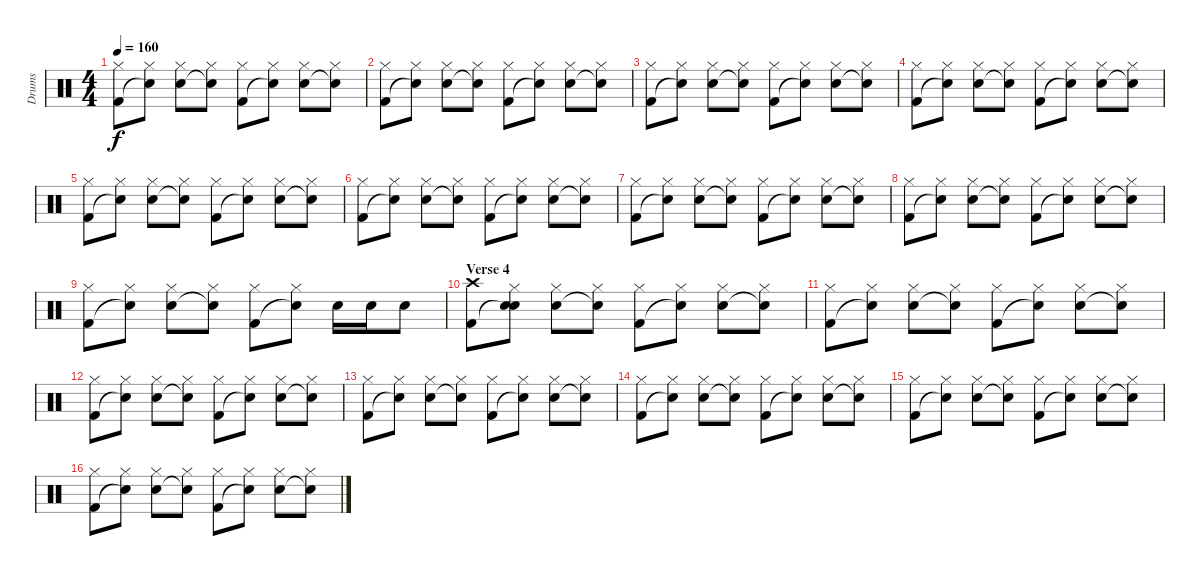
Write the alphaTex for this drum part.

\track ("Drums" "Drums") {instrument percussion}
\staff {score}
\articulation defaults
\ts (4 4)
\tempo 160
\clef neutral
\ks c
("Kick (hit) 2" "Hi-Hat (closed)").8{dy f} ("Snare (hit)"{t} "Hi-Hat (closed)").8 ("Snare (hit) 2" "Hi-Hat (closed)").8 ("Snare (hit)"{t} "Hi-Hat (closed)").8 ("Kick (hit) 2" "Hi-Hat (closed)").8 ("Snare (hit)"{t} "Hi-Hat (closed)").8 ("Snare (hit) 2" "Hi-Hat (closed)").8 ("Snare (hit)"{t} "Hi-Hat (closed)").8 |
("Kick (hit) 2" "Hi-Hat (closed)").8 ("Snare (hit)"{t} "Hi-Hat (closed)").8 ("Snare (hit) 2" "Hi-Hat (closed)").8 ("Snare (hit)"{t} "Hi-Hat (closed)").8 ("Kick (hit) 2" "Hi-Hat (closed)").8 ("Snare (hit)"{t} "Hi-Hat (closed)").8 ("Snare (hit) 2" "Hi-Hat (closed)").8 ("Snare (hit)"{t} "Hi-Hat (closed)").8 |
("Kick (hit) 2" "Hi-Hat (closed)").8 ("Snare (hit)"{t} "Hi-Hat (closed)").8 ("Snare (hit) 2" "Hi-Hat (closed)").8 ("Snare (hit)"{t} "Hi-Hat (closed)").8 ("Kick (hit) 2" "Hi-Hat (closed)").8 ("Snare (hit)"{t} "Hi-Hat (closed)").8 ("Snare (hit) 2" "Hi-Hat (closed)").8 ("Snare (hit)"{t} "Hi-Hat (closed)").8 |
("Kick (hit) 2" "Hi-Hat (closed)").8 ("Snare (hit)"{t} "Hi-Hat (closed)").8 ("Snare (hit) 2" "Hi-Hat (closed)").8 ("Snare (hit)"{t} "Hi-Hat (closed)").8 ("Kick (hit) 2" "Hi-Hat (closed)").8 ("Snare (hit)"{t} "Hi-Hat (closed)").8 ("Snare (hit) 2" "Hi-Hat (closed)").8 ("Snare (hit)"{t} "Hi-Hat (closed)").8 |
("Kick (hit) 2" "Hi-Hat (closed)").8 ("Snare (hit)"{t} "Hi-Hat (closed)").8 ("Snare (hit) 2" "Hi-Hat (closed)").8 ("Snare (hit)"{t} "Hi-Hat (closed)").8 ("Kick (hit) 2" "Hi-Hat (closed)").8 ("Snare (hit)"{t} "Hi-Hat (closed)").8 ("Snare (hit) 2" "Hi-Hat (closed)").8 ("Snare (hit)"{t} "Hi-Hat (closed)").8 |
("Kick (hit) 2" "Hi-Hat (closed)").8 ("Snare (hit)"{t} "Hi-Hat (closed)").8 ("Snare (hit) 2" "Hi-Hat (closed)").8 ("Snare (hit)"{t} "Hi-Hat (closed)").8 ("Kick (hit) 2" "Hi-Hat (closed)").8 ("Snare (hit)"{t} "Hi-Hat (closed)").8 ("Snare (hit) 2" "Hi-Hat (closed)").8 ("Snare (hit)"{t} "Hi-Hat (closed)").8 |
("Kick (hit) 2" "Hi-Hat (closed)").8 ("Snare (hit)"{t} "Hi-Hat (closed)").8 ("Snare (hit) 2" "Hi-Hat (closed)").8 ("Snare (hit)"{t} "Hi-Hat (closed)").8 ("Kick (hit) 2" "Hi-Hat (closed)").8 ("Snare (hit)"{t} "Hi-Hat (closed)").8 ("Snare (hit) 2" "Hi-Hat (closed)").8 ("Snare (hit)"{t} "Hi-Hat (closed)").8 |
("Kick (hit) 2" "Hi-Hat (closed)").8 ("Snare (hit)"{t} "Hi-Hat (closed)").8 ("Snare (hit) 2" "Hi-Hat (closed)").8 ("Snare (hit)"{t} "Hi-Hat (closed)").8 ("Kick (hit) 2" "Hi-Hat (closed)").8 ("Snare (hit)"{t} "Hi-Hat (closed)").8 ("Snare (hit) 2" "Hi-Hat (closed)").8 ("Snare (hit)"{t} "Hi-Hat (closed)").8 |
("Kick (hit) 2" "Hi-Hat (closed)").8 ("Snare (hit)"{t} "Hi-Hat (closed)").8 ("Snare (hit) 2" "Hi-Hat (closed)").8 ("Snare (hit)"{t} "Hi-Hat (closed)").8 ("Kick (hit) 2" "Hi-Hat (closed)").8 ("Snare (hit)"{t} "Hi-Hat (closed)").8 "Snare (hit) 2".16 "Snare (hit) 2".16 "Snare (hit) 2".8 |
\section ("" "Verse 4")
("Kick (hit) 2" "Crash high (hit)").8 ("Snare (hit)"{t} "Hi-Hat (closed)" "Snare (hit)").8 ("Snare (hit) 2" "Hi-Hat (closed)").8 ("Snare (hit)"{t} "Hi-Hat (closed)").8 ("Kick (hit) 2" "Hi-Hat (closed)").8 ("Snare (hit)"{t} "Hi-Hat (closed)").8 ("Snare (hit) 2" "Hi-Hat (closed)").8 ("Snare (hit)"{t} "Hi-Hat (closed)").8 |
("Kick (hit) 2" "Hi-Hat (closed)").8 ("Snare (hit)"{t} "Hi-Hat (closed)").8 ("Snare (hit) 2" "Hi-Hat (closed)").8 ("Snare (hit)"{t} "Hi-Hat (closed)").8 ("Kick (hit) 2" "Hi-Hat (closed)").8 ("Snare (hit)"{t} "Hi-Hat (closed)").8 ("Snare (hit) 2" "Hi-Hat (closed)").8 ("Snare (hit)"{t} "Hi-Hat (closed)").8 |
("Kick (hit) 2" "Hi-Hat (closed)").8 ("Snare (hit)"{t} "Hi-Hat (closed)").8 ("Snare (hit) 2" "Hi-Hat (closed)").8 ("Snare (hit)"{t} "Hi-Hat (closed)").8 ("Kick (hit) 2" "Hi-Hat (closed)").8 ("Snare (hit)"{t} "Hi-Hat (closed)").8 ("Snare (hit) 2" "Hi-Hat (closed)").8 ("Snare (hit)"{t} "Hi-Hat (closed)").8 |
("Kick (hit) 2" "Hi-Hat (closed)").8 ("Snare (hit)"{t} "Hi-Hat (closed)").8 ("Snare (hit) 2" "Hi-Hat (closed)").8 ("Snare (hit)"{t} "Hi-Hat (closed)").8 ("Kick (hit) 2" "Hi-Hat (closed)").8 ("Snare (hit)"{t} "Hi-Hat (closed)").8 ("Snare (hit) 2" "Hi-Hat (closed)").8 ("Snare (hit)"{t} "Hi-Hat (closed)").8 |
("Kick (hit) 2" "Hi-Hat (closed)").8 ("Snare (hit)"{t} "Hi-Hat (closed)").8 ("Snare (hit) 2" "Hi-Hat (closed)").8 ("Snare (hit)"{t} "Hi-Hat (closed)").8 ("Kick (hit) 2" "Hi-Hat (closed)").8 ("Snare (hit)"{t} "Hi-Hat (closed)").8 ("Snare (hit) 2" "Hi-Hat (closed)").8 ("Snare (hit)"{t} "Hi-Hat (closed)").8 |
("Kick (hit) 2" "Hi-Hat (closed)").8 ("Snare (hit)"{t} "Hi-Hat (closed)").8 ("Snare (hit) 2" "Hi-Hat (closed)").8 ("Snare (hit)"{t} "Hi-Hat (closed)").8 ("Kick (hit) 2" "Hi-Hat (closed)").8 ("Snare (hit)"{t} "Hi-Hat (closed)").8 ("Snare (hit) 2" "Hi-Hat (closed)").8 ("Snare (hit)"{t} "Hi-Hat (closed)").8 |
("Kick (hit) 2" "Hi-Hat (closed)").8 ("Snare (hit)"{t} "Hi-Hat (closed)").8 ("Snare (hit) 2" "Hi-Hat (closed)").8 ("Snare (hit)"{t} "Hi-Hat (closed)").8 ("Kick (hit) 2" "Hi-Hat (closed)").8 ("Snare (hit)"{t} "Hi-Hat (closed)").8 ("Snare (hit) 2" "Hi-Hat (closed)").8 ("Snare (hit)"{t} "Hi-Hat (closed)").8
